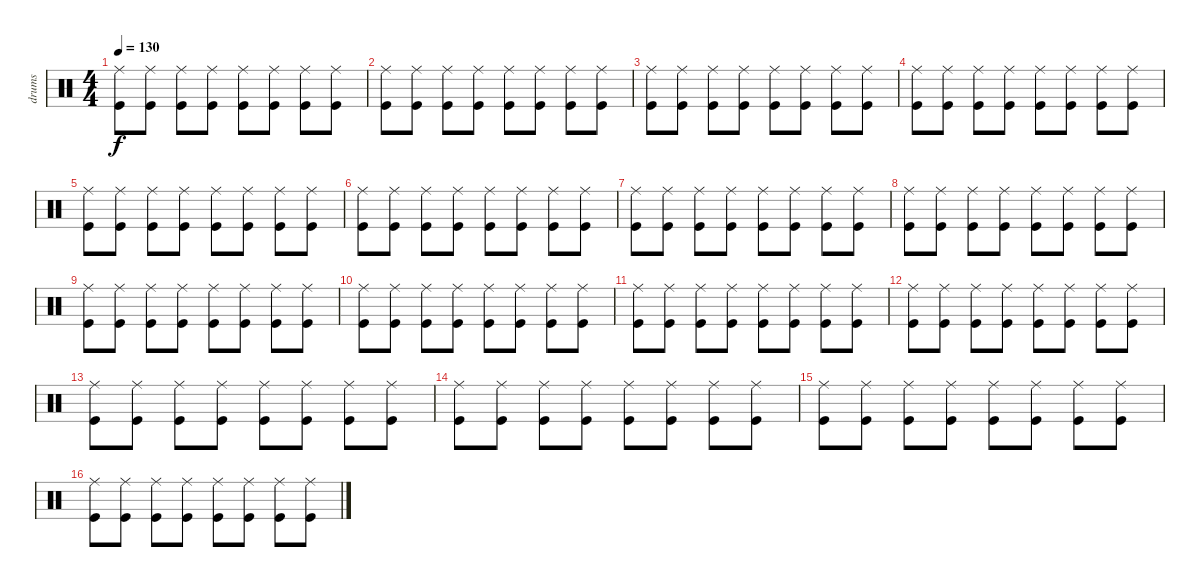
\track ("drums" "drums") {instrument percussion}
\staff {score}
\articulation defaults
\ts (4 4)
\tempo 130
\clef neutral
\ks c
("Ride (middle)" "Kick (hit)").8{dy f} ("Ride (middle)" "Kick (hit)").8 ("Ride (middle)" "Kick (hit)").8 ("Ride (middle)" "Kick (hit)").8 ("Ride (middle)" "Kick (hit)").8 ("Ride (middle)" "Kick (hit)").8 ("Ride (middle)" "Kick (hit)").8 ("Ride (middle)" "Kick (hit)").8 |
("Ride (middle)" "Kick (hit)").8 ("Ride (middle)" "Kick (hit)").8 ("Ride (middle)" "Kick (hit)").8 ("Ride (middle)" "Kick (hit)").8 ("Ride (middle)" "Kick (hit)").8 ("Ride (middle)" "Kick (hit)").8 ("Ride (middle)" "Kick (hit)").8 ("Ride (middle)" "Kick (hit)").8 |
("Ride (middle)" "Kick (hit)").8 ("Ride (middle)" "Kick (hit)").8 ("Ride (middle)" "Kick (hit)").8 ("Ride (middle)" "Kick (hit)").8 ("Ride (middle)" "Kick (hit)").8 ("Ride (middle)" "Kick (hit)").8 ("Ride (middle)" "Kick (hit)").8 ("Ride (middle)" "Kick (hit)").8 |
("Ride (middle)" "Kick (hit)").8 ("Ride (middle)" "Kick (hit)").8 ("Ride (middle)" "Kick (hit)").8 ("Ride (middle)" "Kick (hit)").8 ("Ride (middle)" "Kick (hit)").8 ("Ride (middle)" "Kick (hit)").8 ("Ride (middle)" "Kick (hit)").8 ("Ride (middle)" "Kick (hit)").8 |
("Ride (middle)" "Kick (hit)").8 ("Ride (middle)" "Kick (hit)").8 ("Ride (middle)" "Kick (hit)").8 ("Ride (middle)" "Kick (hit)").8 ("Ride (middle)" "Kick (hit)").8 ("Ride (middle)" "Kick (hit)").8 ("Ride (middle)" "Kick (hit)").8 ("Ride (middle)" "Kick (hit)").8 |
("Ride (middle)" "Kick (hit)").8 ("Ride (middle)" "Kick (hit)").8 ("Ride (middle)" "Kick (hit)").8 ("Ride (middle)" "Kick (hit)").8 ("Ride (middle)" "Kick (hit)").8 ("Ride (middle)" "Kick (hit)").8 ("Ride (middle)" "Kick (hit)").8 ("Ride (middle)" "Kick (hit)").8 |
("Ride (middle)" "Kick (hit)").8 ("Ride (middle)" "Kick (hit)").8 ("Ride (middle)" "Kick (hit)").8 ("Ride (middle)" "Kick (hit)").8 ("Ride (middle)" "Kick (hit)").8 ("Ride (middle)" "Kick (hit)").8 ("Ride (middle)" "Kick (hit)").8 ("Ride (middle)" "Kick (hit)").8 |
("Ride (middle)" "Kick (hit)").8 ("Ride (middle)" "Kick (hit)").8 ("Ride (middle)" "Kick (hit)").8 ("Ride (middle)" "Kick (hit)").8 ("Ride (middle)" "Kick (hit)").8 ("Ride (middle)" "Kick (hit)").8 ("Ride (middle)" "Kick (hit)").8 ("Ride (middle)" "Kick (hit)").8 |
("Ride (middle)" "Kick (hit)").8 ("Ride (middle)" "Kick (hit)").8 ("Ride (middle)" "Kick (hit)").8 ("Ride (middle)" "Kick (hit)").8 ("Ride (middle)" "Kick (hit)").8 ("Ride (middle)" "Kick (hit)").8 ("Ride (middle)" "Kick (hit)").8 ("Ride (middle)" "Kick (hit)").8 |
("Ride (middle)" "Kick (hit)").8 ("Ride (middle)" "Kick (hit)").8 ("Ride (middle)" "Kick (hit)").8 ("Ride (middle)" "Kick (hit)").8 ("Ride (middle)" "Kick (hit)").8 ("Ride (middle)" "Kick (hit)").8 ("Ride (middle)" "Kick (hit)").8 ("Ride (middle)" "Kick (hit)").8 |
("Ride (middle)" "Kick (hit)").8 ("Ride (middle)" "Kick (hit)").8 ("Ride (middle)" "Kick (hit)").8 ("Ride (middle)" "Kick (hit)").8 ("Ride (middle)" "Kick (hit)").8 ("Ride (middle)" "Kick (hit)").8 ("Ride (middle)" "Kick (hit)").8 ("Ride (middle)" "Kick (hit)").8 |
("Ride (middle)" "Kick (hit)").8 ("Ride (middle)" "Kick (hit)").8 ("Ride (middle)" "Kick (hit)").8 ("Ride (middle)" "Kick (hit)").8 ("Ride (middle)" "Kick (hit)").8 ("Ride (middle)" "Kick (hit)").8 ("Ride (middle)" "Kick (hit)").8 ("Ride (middle)" "Kick (hit)").8 |
("Ride (middle)" "Kick (hit)").8 ("Ride (middle)" "Kick (hit)").8 ("Ride (middle)" "Kick (hit)").8 ("Ride (middle)" "Kick (hit)").8 ("Ride (middle)" "Kick (hit)").8 ("Ride (middle)" "Kick (hit)").8 ("Ride (middle)" "Kick (hit)").8 ("Ride (middle)" "Kick (hit)").8 |
("Ride (middle)" "Kick (hit)").8 ("Ride (middle)" "Kick (hit)").8 ("Ride (middle)" "Kick (hit)").8 ("Ride (middle)" "Kick (hit)").8 ("Ride (middle)" "Kick (hit)").8 ("Ride (middle)" "Kick (hit)").8 ("Ride (middle)" "Kick (hit)").8 ("Ride (middle)" "Kick (hit)").8 |
("Ride (middle)" "Kick (hit)").8 ("Ride (middle)" "Kick (hit)").8 ("Ride (middle)" "Kick (hit)").8 ("Ride (middle)" "Kick (hit)").8 ("Ride (middle)" "Kick (hit)").8 ("Ride (middle)" "Kick (hit)").8 ("Ride (middle)" "Kick (hit)").8 ("Ride (middle)" "Kick (hit)").8 |
("Ride (middle)" "Kick (hit)").8 ("Ride (middle)" "Kick (hit)").8 ("Ride (middle)" "Kick (hit)").8 ("Ride (middle)" "Kick (hit)").8 ("Ride (middle)" "Kick (hit)").8 ("Ride (middle)" "Kick (hit)").8 ("Ride (middle)" "Kick (hit)").8 ("Ride (middle)" "Kick (hit)").8
